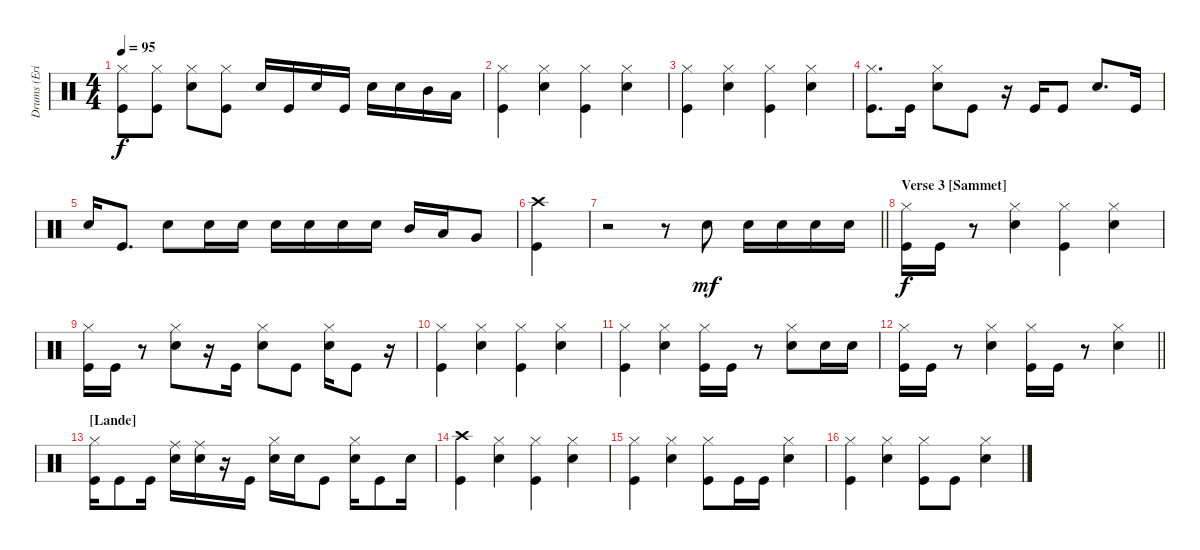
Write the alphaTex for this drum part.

\track ("Drums (Eric Singer)" "Drums (Eri") {instrument percussion}
\staff {score}
\articulation defaults
\ts (4 4)
\tempo 95
\clef neutral
\ks c
("Hi-Hat (closed)" "Kick (hit)").8{dy f} ("Hi-Hat (closed)" "Kick (hit)").8 ("Hi-Hat (closed)" "Snare (hit) 2").8 ("Hi-Hat (closed)" "Kick (hit)").8 "Snare (hit) 2".16 "Kick (hit)".16 "Snare (hit) 2".16 "Kick (hit)".16 "Snare (hit) 2".16 "Snare (hit) 2".16 "Mid Tom (hit)".16 "Low Tom (hit)".16 |
("Hi-Hat (closed)" "Kick (hit)").4 ("Hi-Hat (closed)" "Snare (hit) 2").4 ("Hi-Hat (closed)" "Kick (hit)").4 ("Hi-Hat (closed)" "Snare (hit) 2").4 |
("Hi-Hat (closed)" "Kick (hit)").4 ("Hi-Hat (closed)" "Snare (hit) 2").4 ("Hi-Hat (closed)" "Kick (hit)").4 ("Hi-Hat (closed)" "Snare (hit) 2").4 |
("Hi-Hat (closed)" "Kick (hit)").8{d} "Kick (hit)".16 ("Hi-Hat (closed)" "Snare (hit) 2").8 "Kick (hit)".8 r.16 "Kick (hit)".16 "Kick (hit)".8 "Snare (hit) 2".8{d} "Kick (hit)".16 |
"Snare (hit) 2".16 "Kick (hit)".8{d} "Snare (hit) 2".8 "Snare (hit) 2".16 "Snare (hit) 2".16 "Snare (hit) 2".16 "Snare (hit) 2".16 "Snare (hit) 2".16 "Snare (hit) 2".16 "Mid Tom (hit)".16 "Low Tom (hit)".16 "Very Low Tom (hit)".8 |
("Crash high (hit)" "Kick (hit)").4 |
\barLineRight lightlight
r.2 r.8 "Snare (hit) 2".8{dy mf} "Snare (hit) 2".16 "Snare (hit) 2".16 "Snare (hit) 2".16 "Snare (hit) 2".16 |
\section ("" "Verse 3 [Sammet]")
("Hi-Hat (closed)" "Kick (hit)").16{dy f} "Kick (hit)".16 r.8 ("Hi-Hat (closed)" "Snare (hit) 2").4 ("Hi-Hat (closed)" "Kick (hit)").4 ("Hi-Hat (closed)" "Snare (hit) 2").4 |
("Hi-Hat (closed)" "Kick (hit)").16 "Kick (hit)".16 r.8 ("Hi-Hat (closed)" "Snare (hit) 2").8 r.16 "Kick (hit)".16 ("Hi-Hat (closed)" "Snare (hit) 2").8 "Kick (hit)".8 ("Hi-Hat (closed)" "Snare (hit) 2").16 "Kick (hit)".8 r.16 |
("Hi-Hat (closed)" "Kick (hit)").4 ("Hi-Hat (closed)" "Snare (hit) 2").4 ("Hi-Hat (closed)" "Kick (hit)").4 ("Hi-Hat (closed)" "Snare (hit) 2").4 |
("Hi-Hat (closed)" "Kick (hit)").4 ("Hi-Hat (closed)" "Snare (hit) 2").4 ("Hi-Hat (closed)" "Kick (hit)").16 "Kick (hit)".16 r.8 ("Hi-Hat (closed)" "Snare (hit) 2").8 "Snare (hit) 2".16 "Snare (hit) 2".16 |
\barLineRight lightlight
("Hi-Hat (closed)" "Kick (hit)").16 "Kick (hit)".16 r.8 ("Hi-Hat (closed)" "Snare (hit) 2").4 ("Hi-Hat (closed)" "Kick (hit)").16 "Kick (hit)".16 r.8 ("Hi-Hat (closed)" "Snare (hit) 2").4 |
\section ("" "[Lande]")
("Hi-Hat (closed)" "Kick (hit)").16 "Kick (hit)".8 "Kick (hit)".16 ("Ride (middle)" "Snare (hit) 2").16 ("Ride (middle)" "Snare (hit) 2").16 r.16 "Kick (hit)".16 ("Hi-Hat (closed)" "Snare (hit) 2").16 "Snare (hit) 2".16 "Kick (hit)".8 ("Hi-Hat (closed)" "Snare (hit) 2").16 "Kick (hit)".8 "Snare (hit) 2".16 |
("Crash high (hit)" "Kick (hit)").4 ("Hi-Hat (closed)" "Snare (hit) 2").4 ("Hi-Hat (closed)" "Kick (hit)").4 ("Hi-Hat (closed)" "Snare (hit) 2").4 |
("Hi-Hat (closed)" "Kick (hit)").4 ("Hi-Hat (closed)" "Snare (hit) 2").4 ("Hi-Hat (closed)" "Kick (hit)").8 "Kick (hit)".16 "Kick (hit)".16 ("Hi-Hat (closed)" "Snare (hit) 2").4 |
("Hi-Hat (closed)" "Kick (hit)").4 ("Hi-Hat (closed)" "Snare (hit) 2").4 ("Hi-Hat (closed)" "Kick (hit)").8 "Kick (hit)".8 ("Hi-Hat (closed)" "Snare (hit) 2").4
